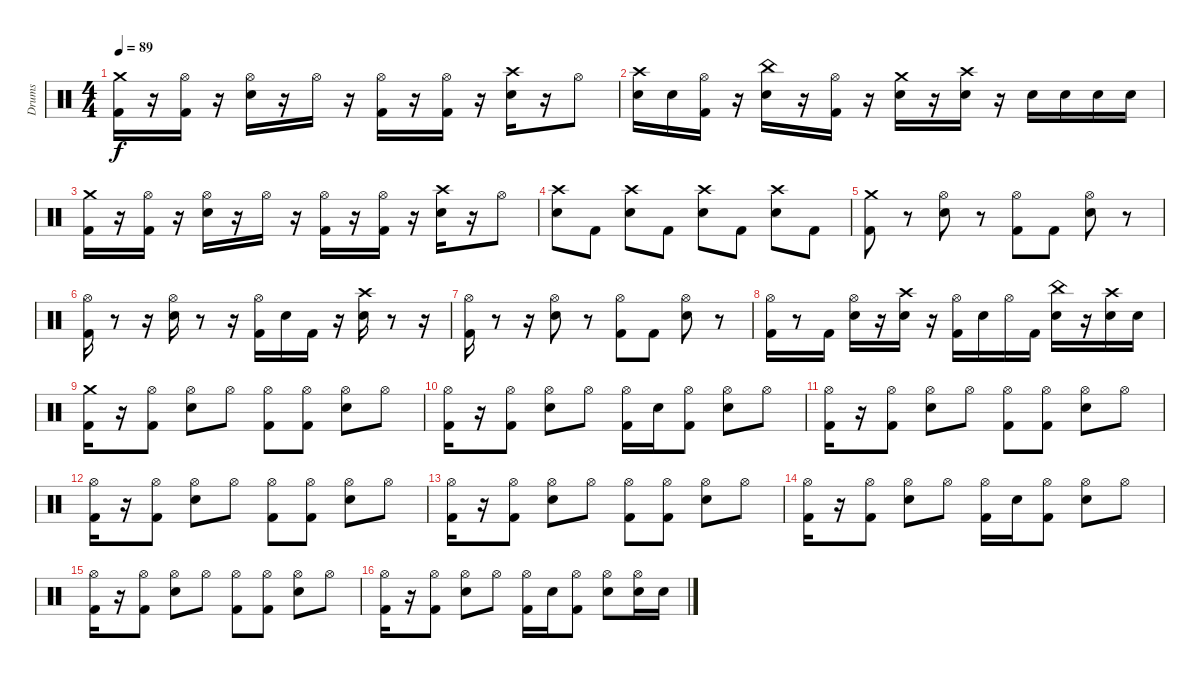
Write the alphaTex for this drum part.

\track ("Drums" "Drums") {instrument percussion}
\staff {score}
\articulation defaults
\ts (4 4)
\tempo 89
\clef neutral
\ks c
("Kick (hit) 2" "Crash medium (hit)").16{dy f} r.16 ("Hi-Hat (open)" "Kick (hit) 2").16 r.16 ("Hi-Hat (open)" "Snare (hit) 2").16 r.16 "Hi-Hat (open)".16 r.16 ("Hi-Hat (open)" "Kick (hit) 2").16 r.16 ("Hi-Hat (open)" "Kick (hit) 2").16 r.16 ("Crash high (hit)" "Snare (hit) 2").16 r.16 "Hi-Hat (open)".8 |
("Snare (hit) 2" "Crash high (hit)").16 "Snare (hit) 2".16 ("Hi-Hat (open)" "Kick (hit) 2").16 r.16 ("China (hit)" "Snare (hit) 2").16 r.16 ("Hi-Hat (open)" "Kick (hit) 2").16 r.16 ("Crash medium (hit)" "Snare (hit) 2").16 r.16 ("Crash high (hit)" "Snare (hit) 2").16 r.16 "Snare (hit) 2".16 "Snare (hit) 2".16 "Snare (hit) 2".16 "Snare (hit) 2".16 |
("Kick (hit) 2" "Crash medium (hit)").16 r.16 ("Hi-Hat (open)" "Kick (hit) 2").16 r.16 ("Hi-Hat (open)" "Snare (hit) 2").16 r.16 "Hi-Hat (open)".16 r.16 ("Hi-Hat (open)" "Kick (hit) 2").16 r.16 ("Hi-Hat (open)" "Kick (hit) 2").16 r.16 ("Crash high (hit)" "Snare (hit) 2").16 r.16 "Hi-Hat (open)".8 |
("Snare (hit) 2" "Crash high (hit)").8 "Kick (hit) 2".8 ("Crash high (hit)" "Snare (hit) 2").8 "Kick (hit) 2".8 ("Crash high (hit)" "Snare (hit) 2").8 "Kick (hit) 2".8 ("Crash high (hit)" "Snare (hit) 2").8 "Kick (hit) 2".8 |
("Kick (hit) 2" "Crash medium (hit)").8 r.8 ("Hi-Hat (open)" "Snare (hit) 2").8 r.8 ("Hi-Hat (open)" "Kick (hit) 2").8 "Kick (hit) 2".8 ("Hi-Hat (open)" "Snare (hit) 2").8 r.8 |
("Hi-Hat (open)" "Kick (hit) 2").16 r.8 r.16 ("Hi-Hat (open)" "Snare (hit) 2").16 r.8 r.16 ("Hi-Hat (open)" "Kick (hit) 2").16 "Snare (hit) 2".16 "Kick (hit) 2".16 r.16 ("Crash high (hit)" "Snare (hit) 2").16 r.8 r.16 |
("Hi-Hat (open)" "Kick (hit) 2").16 r.8 r.16 ("Hi-Hat (open)" "Snare (hit) 2").8 r.8 ("Hi-Hat (open)" "Kick (hit) 2").8 "Kick (hit) 2".8 ("Hi-Hat (open)" "Snare (hit) 2").8 r.8 |
("Hi-Hat (open)" "Kick (hit) 2").16 r.8 "Kick (hit) 2".16 ("Hi-Hat (open)" "Snare (hit) 2").16 r.16 ("Crash high (hit)" "Snare (hit) 2").16 r.16 ("Hi-Hat (open)" "Kick (hit) 2").16 "Snare (hit) 2".16 "Hi-Hat (open)".16 "Kick (hit) 2".16 ("China (hit)" "Snare (hit) 2").16 r.16 ("Crash high (hit)" "Snare (hit) 2").16 "Snare (hit) 2".16 |
("Kick (hit) 2" "Crash medium (hit)").16 r.16 ("Kick (hit) 2" "Hi-Hat (open)").8 ("Hi-Hat (open)" "Snare (hit) 2").8 "Hi-Hat (open)".8 ("Hi-Hat (open)" "Kick (hit) 2").8 ("Kick (hit) 2" "Hi-Hat (open)").8 ("Hi-Hat (open)" "Snare (hit) 2").8 "Hi-Hat (open)".8 |
("Kick (hit) 2" "Hi-Hat (open)").16 r.16 ("Kick (hit) 2" "Hi-Hat (open)").8 ("Snare (hit) 2" "Hi-Hat (open)").8 "Hi-Hat (open)".8 ("Kick (hit) 2" "Hi-Hat (open)").16 "Snare (hit) 2".16 ("Kick (hit) 2" "Hi-Hat (open)").8 ("Snare (hit) 2" "Hi-Hat (open)").8 "Hi-Hat (open)".8 |
("Kick (hit) 2" "Hi-Hat (open)").16 r.16 ("Kick (hit) 2" "Hi-Hat (open)").8 ("Snare (hit) 2" "Hi-Hat (open)").8 "Hi-Hat (open)".8 ("Kick (hit) 2" "Hi-Hat (open)").8 ("Kick (hit) 2" "Hi-Hat (open)").8 ("Snare (hit) 2" "Hi-Hat (open)").8 "Hi-Hat (open)".8 |
("Kick (hit) 2" "Hi-Hat (open)").16 r.16 ("Kick (hit) 2" "Hi-Hat (open)").8 ("Snare (hit) 2" "Hi-Hat (open)").8 "Hi-Hat (open)".8 ("Kick (hit) 2" "Hi-Hat (open)").8 ("Kick (hit) 2" "Hi-Hat (open)").8 ("Snare (hit) 2" "Hi-Hat (open)").8 "Hi-Hat (open)".8 |
("Kick (hit) 2" "Hi-Hat (open)").16 r.16 ("Kick (hit) 2" "Hi-Hat (open)").8 ("Snare (hit) 2" "Hi-Hat (open)").8 "Hi-Hat (open)".8 ("Kick (hit) 2" "Hi-Hat (open)").8 ("Kick (hit) 2" "Hi-Hat (open)").8 ("Snare (hit) 2" "Hi-Hat (open)").8 "Hi-Hat (open)".8 |
("Kick (hit) 2" "Hi-Hat (open)").16 r.16 ("Kick (hit) 2" "Hi-Hat (open)").8 ("Snare (hit) 2" "Hi-Hat (open)").8 "Hi-Hat (open)".8 ("Kick (hit) 2" "Hi-Hat (open)").16 "Snare (hit) 2".16 ("Kick (hit) 2" "Hi-Hat (open)").8 ("Snare (hit) 2" "Hi-Hat (open)").8 "Hi-Hat (open)".8 |
("Kick (hit) 2" "Hi-Hat (open)").16 r.16 ("Kick (hit) 2" "Hi-Hat (open)").8 ("Snare (hit) 2" "Hi-Hat (open)").8 "Hi-Hat (open)".8 ("Kick (hit) 2" "Hi-Hat (open)").8 ("Kick (hit) 2" "Hi-Hat (open)").8 ("Snare (hit) 2" "Hi-Hat (open)").8 "Hi-Hat (open)".8 |
("Kick (hit) 2" "Hi-Hat (open)").16 r.16 ("Kick (hit) 2" "Hi-Hat (open)").8 ("Snare (hit) 2" "Hi-Hat (open)").8 "Hi-Hat (open)".8 ("Kick (hit) 2" "Hi-Hat (open)").16 "Snare (hit) 2".16 ("Kick (hit) 2" "Hi-Hat (open)").8 ("Snare (hit) 2" "Hi-Hat (open)").8 ("Snare (hit) 2" "Hi-Hat (open)").16 "Snare (hit) 2".16
